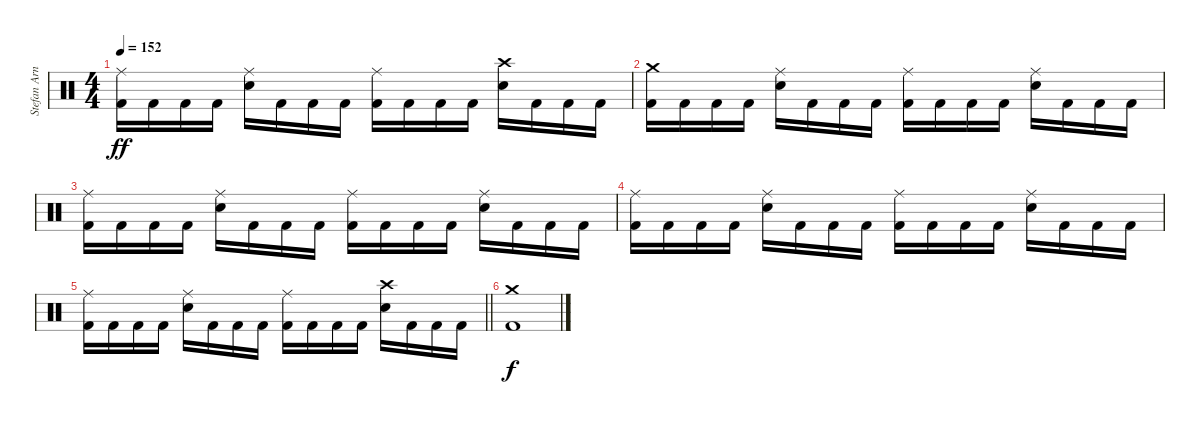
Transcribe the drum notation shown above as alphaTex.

\track ("Stefan Arnold" "Stefan Arn") {instrument percussion}
\staff {score}
\articulation defaults
\ts (4 4)
\tempo 152
\clef neutral
\ks c
("Ride (middle)" "Kick (hit) 2").16{dy ff} "Kick (hit) 2".16 "Kick (hit) 2".16 "Kick (hit) 2".16 ("Ride (middle)" "Electric Snare (hit)").16 "Kick (hit) 2".16 "Kick (hit) 2".16 "Kick (hit) 2".16 ("Ride (middle)" "Kick (hit) 2").16 "Kick (hit) 2".16 "Kick (hit) 2".16 "Kick (hit) 2".16 ("Crash high (hit)" "Electric Snare (hit)").16 "Kick (hit) 2".16 "Kick (hit) 2".16 "Kick (hit) 2".16 |
("Crash medium (hit)" "Kick (hit) 2").16 "Kick (hit) 2".16 "Kick (hit) 2".16 "Kick (hit) 2".16 ("Ride (middle)" "Electric Snare (hit)").16 "Kick (hit) 2".16 "Kick (hit) 2".16 "Kick (hit) 2".16 ("Ride (middle)" "Kick (hit) 2").16 "Kick (hit) 2".16 "Kick (hit) 2".16 "Kick (hit) 2".16 ("Ride (middle)" "Electric Snare (hit)").16 "Kick (hit) 2".16 "Kick (hit) 2".16 "Kick (hit) 2".16 |
("Ride (middle)" "Kick (hit) 2").16 "Kick (hit) 2".16 "Kick (hit) 2".16 "Kick (hit) 2".16 ("Ride (middle)" "Electric Snare (hit)").16 "Kick (hit) 2".16 "Kick (hit) 2".16 "Kick (hit) 2".16 ("Ride (middle)" "Kick (hit) 2").16 "Kick (hit) 2".16 "Kick (hit) 2".16 "Kick (hit) 2".16 ("Ride (middle)" "Electric Snare (hit)").16 "Kick (hit) 2".16 "Kick (hit) 2".16 "Kick (hit) 2".16 |
("Ride (middle)" "Kick (hit) 2").16 "Kick (hit) 2".16 "Kick (hit) 2".16 "Kick (hit) 2".16 ("Ride (middle)" "Electric Snare (hit)").16 "Kick (hit) 2".16 "Kick (hit) 2".16 "Kick (hit) 2".16 ("Ride (middle)" "Kick (hit) 2").16 "Kick (hit) 2".16 "Kick (hit) 2".16 "Kick (hit) 2".16 ("Ride (middle)" "Electric Snare (hit)").16 "Kick (hit) 2".16 "Kick (hit) 2".16 "Kick (hit) 2".16 |
\barLineRight lightlight
("Ride (middle)" "Kick (hit) 2").16 "Kick (hit) 2".16 "Kick (hit) 2".16 "Kick (hit) 2".16 ("Ride (middle)" "Electric Snare (hit)").16 "Kick (hit) 2".16 "Kick (hit) 2".16 "Kick (hit) 2".16 ("Ride (middle)" "Kick (hit) 2").16 "Kick (hit) 2".16 "Kick (hit) 2".16 "Kick (hit) 2".16 ("Crash high (hit)" "Electric Snare (hit)").16 "Kick (hit) 2".16 "Kick (hit) 2".16 "Kick (hit) 2".16 |
("Crash medium (hit)" "Kick (hit) 2").1{dy f}
